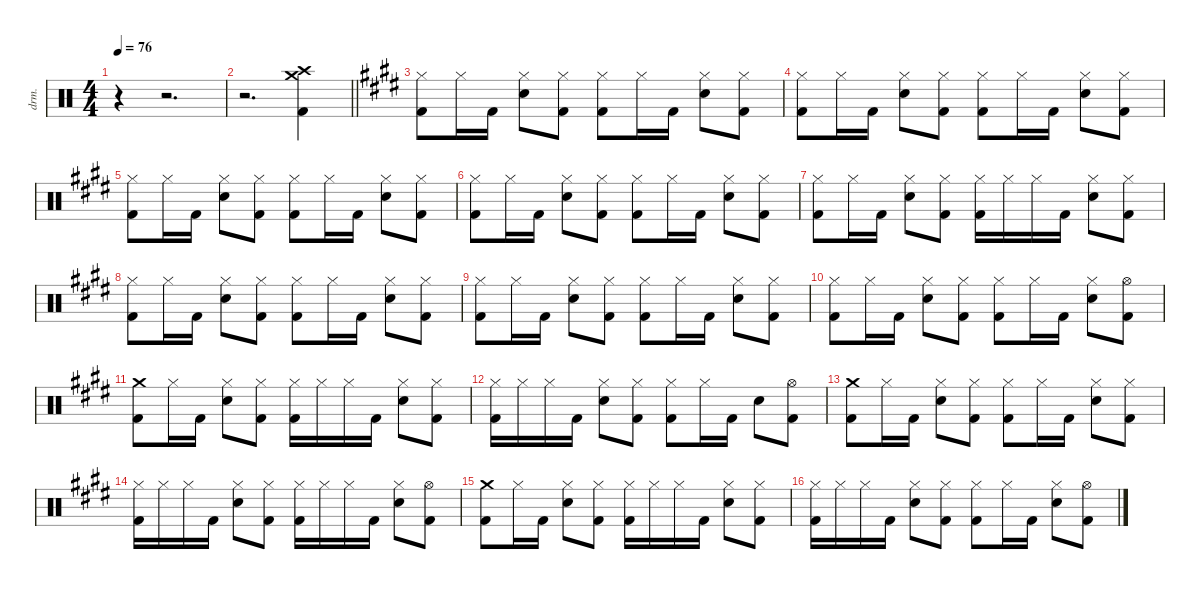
\defaultSystemsLayout 4
\hideDynamics
\bracketExtendMode nobrackets
\otherSystemsTrackNameOrientation horizontal
\track ("Drums" "drm.") {instrument percussion}
\staff {score}
\articulation defaults
\ts (4 4)
\tempo 76
\clef neutral
\ks c
r.4{dy f beam Down} r.2{d beam Down} |
\barLineRight lightlight
r.2{d beam Down} ("Crash medium (hit)" "Crash high (hit)" "Kick (hit) 2").4{beam Down} |
\ks e
("Hi-Hat (closed)"{acc forcenatural} "Kick (hit) 2"{acc forcenatural}).8{beam Down} "Hi-Hat (closed)"{acc forcenatural}.16{beam Down} "Kick (hit) 2"{acc forcenatural}.16{beam Down} ("Hi-Hat (closed)"{acc forcenatural} "Snare (hit) 2"{acc forcenatural}).8{dy mf beam Down} ("Hi-Hat (closed)"{acc forcenatural} "Kick (hit) 2"{acc forcenatural}).8{dy f beam Down} ("Hi-Hat (closed)"{acc forcenatural} "Kick (hit) 2"{acc forcenatural}).8{beam Down} "Hi-Hat (closed)"{acc forcenatural}.16{beam Down} "Kick (hit) 2"{acc forcenatural}.16{beam Down} ("Hi-Hat (closed)"{acc forcenatural} "Snare (hit) 2"{acc forcenatural}).8{dy mf beam Down} ("Hi-Hat (closed)"{acc forcenatural} "Kick (hit) 2"{acc forcenatural}).8{dy f beam Down} |
("Hi-Hat (closed)"{acc forcenatural} "Kick (hit) 2"{acc forcenatural}).8{beam Down} "Hi-Hat (closed)"{acc forcenatural}.16{beam Down} "Kick (hit) 2"{acc forcenatural}.16{beam Down} ("Hi-Hat (closed)"{acc forcenatural} "Snare (hit) 2"{acc forcenatural}).8{dy mf beam Down} ("Hi-Hat (closed)"{acc forcenatural} "Kick (hit) 2"{acc forcenatural}).8{dy f beam Down} ("Hi-Hat (closed)"{acc forcenatural} "Kick (hit) 2"{acc forcenatural}).8{beam Down} "Hi-Hat (closed)"{acc forcenatural}.16{beam Down} "Kick (hit) 2"{acc forcenatural}.16{beam Down} ("Hi-Hat (closed)"{acc forcenatural} "Snare (hit) 2"{acc forcenatural}).8{dy mf beam Down} ("Hi-Hat (closed)"{acc forcenatural} "Kick (hit) 2"{acc forcenatural}).8{dy f beam Down} |
("Hi-Hat (closed)"{acc forcenatural} "Kick (hit) 2"{acc forcenatural}).8{beam Down} "Hi-Hat (closed)"{acc forcenatural}.16{beam Down} "Kick (hit) 2"{acc forcenatural}.16{beam Down} ("Hi-Hat (closed)"{acc forcenatural} "Snare (hit) 2"{acc forcenatural}).8{dy mf beam Down} ("Hi-Hat (closed)"{acc forcenatural} "Kick (hit) 2"{acc forcenatural}).8{dy f beam Down} ("Hi-Hat (closed)"{acc forcenatural} "Kick (hit) 2"{acc forcenatural}).8{beam Down} "Hi-Hat (closed)"{acc forcenatural}.16{beam Down} "Kick (hit) 2"{acc forcenatural}.16{beam Down} ("Hi-Hat (closed)"{acc forcenatural} "Snare (hit) 2"{acc forcenatural}).8{dy mf beam Down} ("Hi-Hat (closed)"{acc forcenatural} "Kick (hit) 2"{acc forcenatural}).8{dy f beam Down} |
("Hi-Hat (closed)"{acc forcenatural} "Kick (hit) 2"{acc forcenatural}).8{beam Down} "Hi-Hat (closed)"{acc forcenatural}.16{beam Down} "Kick (hit) 2"{acc forcenatural}.16{beam Down} ("Hi-Hat (closed)"{acc forcenatural} "Snare (hit) 2"{acc forcenatural}).8{dy mf beam Down} ("Hi-Hat (closed)"{acc forcenatural} "Kick (hit) 2"{acc forcenatural}).8{dy f beam Down} ("Hi-Hat (closed)"{acc forcenatural} "Kick (hit) 2"{acc forcenatural}).8{beam Down} "Hi-Hat (closed)"{acc forcenatural}.16{beam Down} "Kick (hit) 2"{acc forcenatural}.16{beam Down} ("Hi-Hat (closed)"{acc forcenatural} "Snare (hit) 2"{acc forcenatural}).8{dy mf beam Down} ("Hi-Hat (closed)"{acc forcenatural} "Kick (hit) 2"{acc forcenatural}).8{dy f beam Down} |
("Hi-Hat (closed)"{acc forcenatural} "Kick (hit) 2"{acc forcenatural}).8{beam Down} "Hi-Hat (closed)"{acc forcenatural}.16{beam Down} "Kick (hit) 2"{acc forcenatural}.16{beam Down} ("Hi-Hat (closed)"{acc forcenatural} "Snare (hit) 2"{acc forcenatural}).8{dy mf beam Down} ("Hi-Hat (closed)"{acc forcenatural} "Kick (hit) 2"{acc forcenatural}).8{dy f beam Down} ("Hi-Hat (closed)"{acc forcenatural} "Kick (hit) 2"{acc forcenatural}).16{beam Down} "Hi-Hat (closed)"{acc forcenatural}.16{dy mf beam Down} "Hi-Hat (closed)"{acc forcenatural}.16{dy f beam Down} "Kick (hit) 2"{acc forcenatural}.16{beam Down} ("Hi-Hat (closed)"{acc forcenatural} "Snare (hit) 2"{acc forcenatural}).8{dy mf beam Down} ("Hi-Hat (closed)"{acc forcenatural} "Kick (hit) 2"{acc forcenatural}).8{dy f beam Down} |
("Hi-Hat (closed)"{acc forcenatural} "Kick (hit) 2"{acc forcenatural}).8{beam Down} "Hi-Hat (closed)"{acc forcenatural}.16{beam Down} "Kick (hit) 2"{acc forcenatural}.16{beam Down} ("Hi-Hat (closed)"{acc forcenatural} "Snare (hit) 2"{acc forcenatural}).8{dy mf beam Down} ("Hi-Hat (closed)"{acc forcenatural} "Kick (hit) 2"{acc forcenatural}).8{dy f beam Down} ("Hi-Hat (closed)"{acc forcenatural} "Kick (hit) 2"{acc forcenatural}).8{beam Down} "Hi-Hat (closed)"{acc forcenatural}.16{beam Down} "Kick (hit) 2"{acc forcenatural}.16{beam Down} ("Hi-Hat (closed)"{acc forcenatural} "Snare (hit) 2"{acc forcenatural}).8{dy mf beam Down} ("Hi-Hat (closed)"{acc forcenatural} "Kick (hit) 2"{acc forcenatural}).8{dy f beam Down} |
("Hi-Hat (closed)"{acc forcenatural} "Kick (hit) 2"{acc forcenatural}).8{beam Down} "Hi-Hat (closed)"{acc forcenatural}.16{beam Down} "Kick (hit) 2"{acc forcenatural}.16{beam Down} ("Hi-Hat (closed)"{acc forcenatural} "Snare (hit) 2"{acc forcenatural}).8{dy mf beam Down} ("Hi-Hat (closed)"{acc forcenatural} "Kick (hit) 2"{acc forcenatural}).8{dy f beam Down} ("Hi-Hat (closed)"{acc forcenatural} "Kick (hit) 2"{acc forcenatural}).8{beam Down} "Hi-Hat (closed)"{acc forcenatural}.16{beam Down} "Kick (hit) 2"{acc forcenatural}.16{beam Down} ("Hi-Hat (closed)"{acc forcenatural} "Snare (hit) 2"{acc forcenatural}).8{dy mf beam Down} ("Hi-Hat (closed)"{acc forcenatural} "Kick (hit) 2"{acc forcenatural}).8{dy f beam Down} |
("Hi-Hat (closed)"{acc forcenatural} "Kick (hit) 2"{acc forcenatural}).8{beam Down} "Hi-Hat (closed)"{acc forcenatural}.16{beam Down} "Kick (hit) 2"{acc forcenatural}.16{beam Down} ("Hi-Hat (closed)"{acc forcenatural} "Snare (hit) 2"{acc forcenatural}).8{dy mf beam Down} ("Hi-Hat (closed)"{acc forcenatural} "Kick (hit) 2"{acc forcenatural}).8{dy f beam Down} ("Hi-Hat (closed)"{acc forcenatural} "Kick (hit) 2"{acc forcenatural}).8{beam Down} "Hi-Hat (closed)"{acc forcenatural}.16{beam Down} "Kick (hit) 2"{acc forcenatural}.16{beam Down} ("Hi-Hat (closed)"{acc forcenatural} "Snare (hit) 2"{acc forcenatural}).8{dy mf beam Down} ("Hi-Hat (open)"{acc forcenatural} "Kick (hit) 2"{acc forcenatural}).8{dy f beam Down} |
("Crash medium (hit)"{acc forcenatural} "Kick (hit) 2"{acc forcenatural}).8{beam Down} "Hi-Hat (closed)"{acc forcenatural}.16{beam Down} "Kick (hit) 2"{acc forcenatural}.16{beam Down} ("Hi-Hat (closed)"{acc forcenatural} "Snare (hit) 2"{acc forcenatural}).8{dy mf beam Down} ("Hi-Hat (closed)"{acc forcenatural} "Kick (hit) 2"{acc forcenatural}).8{dy f beam Down} ("Hi-Hat (closed)"{acc forcenatural} "Kick (hit) 2"{acc forcenatural}).16{beam Down} "Hi-Hat (closed)"{acc forcenatural}.16{dy mf beam Down} "Hi-Hat (closed)"{acc forcenatural}.16{dy f beam Down} "Kick (hit) 2"{acc forcenatural}.16{beam Down} ("Hi-Hat (closed)"{acc forcenatural} "Snare (hit) 2"{acc forcenatural}).8{dy mf beam Down} ("Hi-Hat (closed)"{acc forcenatural} "Kick (hit) 2"{acc forcenatural}).8{dy f beam Down} |
("Hi-Hat (closed)"{acc forcenatural} "Kick (hit) 2"{acc forcenatural}).16{beam Down} "Hi-Hat (closed)"{acc forcenatural}.16{dy mf beam Down} "Hi-Hat (closed)"{acc forcenatural}.16{dy f beam Down} "Kick (hit) 2"{acc forcenatural}.16{beam Down} ("Hi-Hat (closed)"{acc forcenatural} "Snare (hit) 2"{acc forcenatural}).8{dy mf beam Down} ("Hi-Hat (closed)"{acc forcenatural} "Kick (hit) 2"{acc forcenatural}).8{dy f beam Down} ("Hi-Hat (closed)"{acc forcenatural} "Kick (hit) 2"{acc forcenatural}).8{beam Down} "Hi-Hat (closed)"{acc forcenatural}.16{beam Down} "Kick (hit) 2"{acc forcenatural}.16{beam Down} "Snare (hit) 2"{acc forcenatural}.8{beam Down} ("Hi-Hat (open)"{acc forcenatural} "Kick (hit) 2"{acc forcenatural}).8{beam Down} |
("Crash medium (hit)"{acc forcenatural} "Kick (hit) 2"{acc forcenatural}).8{beam Down} "Hi-Hat (closed)"{acc forcenatural}.16{beam Down} "Kick (hit) 2"{acc forcenatural}.16{beam Down} ("Hi-Hat (closed)"{acc forcenatural} "Snare (hit) 2"{acc forcenatural}).8{dy mf beam Down} ("Hi-Hat (closed)"{acc forcenatural} "Kick (hit) 2"{acc forcenatural}).8{dy f beam Down} ("Hi-Hat (closed)"{acc forcenatural} "Kick (hit) 2"{acc forcenatural}).8{beam Down} "Hi-Hat (closed)"{acc forcenatural}.16{beam Down} "Kick (hit) 2"{acc forcenatural}.16{beam Down} ("Hi-Hat (closed)"{acc forcenatural} "Snare (hit) 2"{acc forcenatural}).8{dy mf beam Down} ("Hi-Hat (closed)"{acc forcenatural} "Kick (hit) 2"{acc forcenatural}).8{dy f beam Down} |
("Hi-Hat (closed)"{acc forcenatural} "Kick (hit) 2"{acc forcenatural}).16{beam Down} "Hi-Hat (closed)"{acc forcenatural}.16{dy mf beam Down} "Hi-Hat (closed)"{acc forcenatural}.16{dy f beam Down} "Kick (hit) 2"{acc forcenatural}.16{beam Down} ("Hi-Hat (closed)"{acc forcenatural} "Snare (hit) 2"{acc forcenatural}).8{dy mf beam Down} ("Hi-Hat (closed)"{acc forcenatural} "Kick (hit) 2"{acc forcenatural}).8{dy f beam Down} ("Hi-Hat (closed)"{acc forcenatural} "Kick (hit) 2"{acc forcenatural}).16{beam Down} "Hi-Hat (closed)"{acc forcenatural}.16{dy mf beam Down} "Hi-Hat (closed)"{acc forcenatural}.16{dy f beam Down} "Kick (hit) 2"{acc forcenatural}.16{beam Down} ("Hi-Hat (closed)"{acc forcenatural} "Snare (hit) 2"{acc forcenatural}).8{dy mf beam Down} ("Hi-Hat (open)"{acc forcenatural} "Kick (hit) 2"{acc forcenatural}).8{dy f beam Down} |
("Crash medium (hit)"{acc forcenatural} "Kick (hit) 2"{acc forcenatural}).8{beam Down} "Hi-Hat (closed)"{acc forcenatural}.16{beam Down} "Kick (hit) 2"{acc forcenatural}.16{beam Down} ("Hi-Hat (closed)"{acc forcenatural} "Snare (hit) 2"{acc forcenatural}).8{dy mf beam Down} ("Hi-Hat (closed)"{acc forcenatural} "Kick (hit) 2"{acc forcenatural}).8{dy f beam Down} ("Hi-Hat (closed)"{acc forcenatural} "Kick (hit) 2"{acc forcenatural}).16{beam Down} "Hi-Hat (closed)"{acc forcenatural}.16{dy mf beam Down} "Hi-Hat (closed)"{acc forcenatural}.16{dy f beam Down} "Kick (hit) 2"{acc forcenatural}.16{beam Down} ("Hi-Hat (closed)"{acc forcenatural} "Snare (hit) 2"{acc forcenatural}).8{dy mf beam Down} ("Hi-Hat (closed)"{acc forcenatural} "Kick (hit) 2"{acc forcenatural}).8{dy f beam Down} |
("Hi-Hat (closed)"{acc forcenatural} "Kick (hit) 2"{acc forcenatural}).16{beam Down} "Hi-Hat (closed)"{acc forcenatural}.16{dy mf beam Down} "Hi-Hat (closed)"{acc forcenatural}.16{dy f beam Down} "Kick (hit) 2"{acc forcenatural}.16{beam Down} ("Hi-Hat (closed)"{acc forcenatural} "Snare (hit) 2"{acc forcenatural}).8{dy mf beam Down} ("Hi-Hat (closed)"{acc forcenatural} "Kick (hit) 2"{acc forcenatural}).8{dy f beam Down} ("Hi-Hat (closed)"{acc forcenatural} "Kick (hit) 2"{acc forcenatural}).8{beam Down} "Hi-Hat (closed)"{acc forcenatural}.16{beam Down} "Kick (hit) 2"{acc forcenatural}.16{beam Down} ("Hi-Hat (closed)"{acc forcenatural} "Snare (hit) 2"{acc forcenatural}).8{dy mf beam Down} ("Hi-Hat (open)"{acc forcenatural} "Kick (hit) 2"{acc forcenatural}).8{dy f beam Down}
